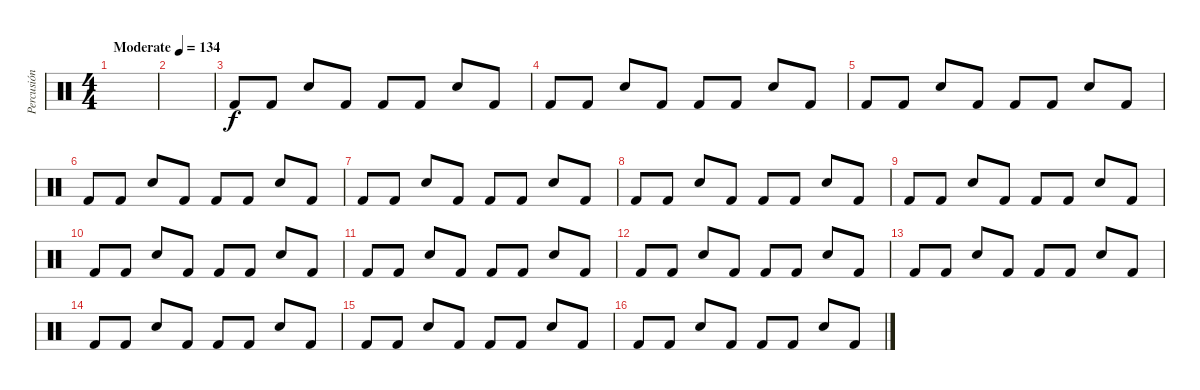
\track ("Percusión" "Percusión") {instrument percussion}
\staff {score}
\articulation defaults
\ts (4 4)
\tempo (134 "Moderate")
\clef neutral
\ks c
|
|
"Kick (hit) 2".8 "Kick (hit) 2".8 "Snare (hit) 2".8 "Kick (hit) 2".8 "Kick (hit) 2".8 "Kick (hit) 2".8 "Snare (hit) 2".8 "Kick (hit) 2".8 |
"Kick (hit) 2".8 "Kick (hit) 2".8 "Snare (hit) 2".8 "Kick (hit) 2".8 "Kick (hit) 2".8 "Kick (hit) 2".8 "Snare (hit) 2".8 "Kick (hit) 2".8 |
"Kick (hit) 2".8 "Kick (hit) 2".8 "Snare (hit) 2".8 "Kick (hit) 2".8 "Kick (hit) 2".8 "Kick (hit) 2".8 "Snare (hit) 2".8 "Kick (hit) 2".8 |
"Kick (hit) 2".8 "Kick (hit) 2".8 "Snare (hit) 2".8 "Kick (hit) 2".8 "Kick (hit) 2".8 "Kick (hit) 2".8 "Snare (hit) 2".8 "Kick (hit) 2".8 |
"Kick (hit) 2".8 "Kick (hit) 2".8 "Snare (hit) 2".8 "Kick (hit) 2".8 "Kick (hit) 2".8 "Kick (hit) 2".8 "Snare (hit) 2".8 "Kick (hit) 2".8 |
"Kick (hit) 2".8 "Kick (hit) 2".8 "Snare (hit) 2".8 "Kick (hit) 2".8 "Kick (hit) 2".8 "Kick (hit) 2".8 "Snare (hit) 2".8 "Kick (hit) 2".8 |
"Kick (hit) 2".8 "Kick (hit) 2".8 "Snare (hit) 2".8 "Kick (hit) 2".8 "Kick (hit) 2".8 "Kick (hit) 2".8 "Snare (hit) 2".8 "Kick (hit) 2".8 |
"Kick (hit) 2".8 "Kick (hit) 2".8 "Snare (hit) 2".8 "Kick (hit) 2".8 "Kick (hit) 2".8 "Kick (hit) 2".8 "Snare (hit) 2".8 "Kick (hit) 2".8 |
"Kick (hit) 2".8 "Kick (hit) 2".8 "Snare (hit) 2".8 "Kick (hit) 2".8 "Kick (hit) 2".8 "Kick (hit) 2".8 "Snare (hit) 2".8 "Kick (hit) 2".8 |
"Kick (hit) 2".8 "Kick (hit) 2".8 "Snare (hit) 2".8 "Kick (hit) 2".8 "Kick (hit) 2".8 "Kick (hit) 2".8 "Snare (hit) 2".8 "Kick (hit) 2".8 |
"Kick (hit) 2".8 "Kick (hit) 2".8 "Snare (hit) 2".8 "Kick (hit) 2".8 "Kick (hit) 2".8 "Kick (hit) 2".8 "Snare (hit) 2".8 "Kick (hit) 2".8 |
"Kick (hit) 2".8 "Kick (hit) 2".8 "Snare (hit) 2".8 "Kick (hit) 2".8 "Kick (hit) 2".8 "Kick (hit) 2".8 "Snare (hit) 2".8 "Kick (hit) 2".8 |
"Kick (hit) 2".8 "Kick (hit) 2".8 "Snare (hit) 2".8 "Kick (hit) 2".8 "Kick (hit) 2".8 "Kick (hit) 2".8 "Snare (hit) 2".8 "Kick (hit) 2".8 |
"Kick (hit) 2".8 "Kick (hit) 2".8 "Snare (hit) 2".8 "Kick (hit) 2".8 "Kick (hit) 2".8 "Kick (hit) 2".8 "Snare (hit) 2".8 "Kick (hit) 2".8
